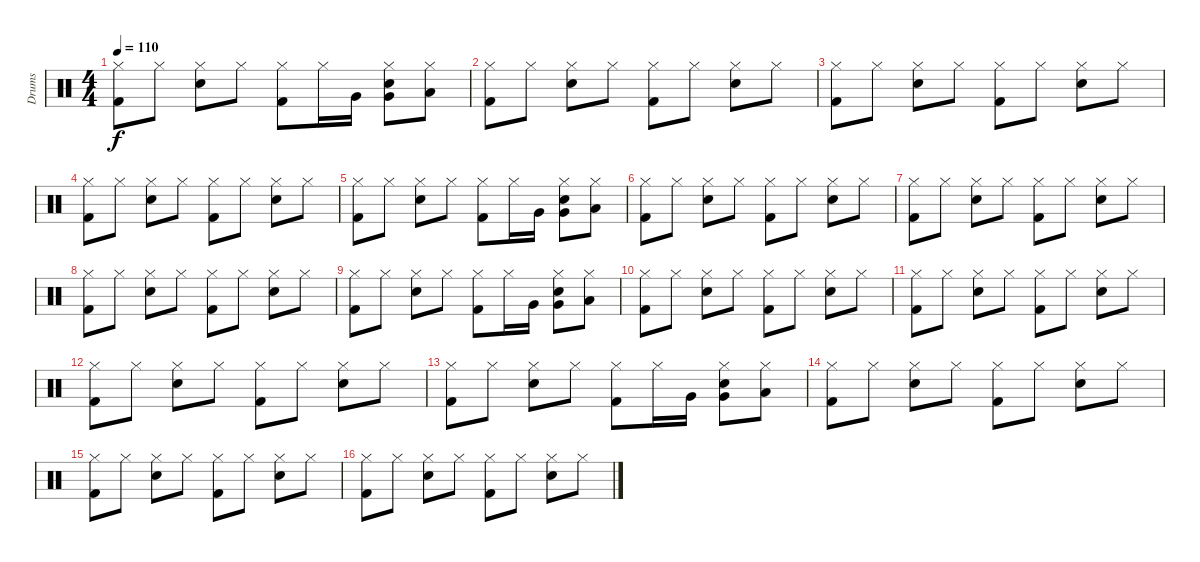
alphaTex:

\track ("Drums" "Drums") {instrument percussion}
\staff {score}
\articulation defaults
\ts (4 4)
\tempo 110
\clef neutral
\ks c
("Hi-Hat (closed)" "Kick (hit) 2").8{dy f} "Hi-Hat (closed)".8 ("Hi-Hat (closed)" "Electric Snare (hit)").8 "Hi-Hat (closed)".8 ("Hi-Hat (closed)" "Kick (hit) 2").8 "Hi-Hat (closed)".16 "Very Low Tom (hit)".16 ("Hi-Hat (closed)" "Electric Snare (hit)" "Very Low Tom (hit)").8 ("Hi-Hat (closed)" "Low Floor Tom (hit)").8 |
("Hi-Hat (closed)" "Kick (hit) 2").8 "Hi-Hat (closed)".8 ("Hi-Hat (closed)" "Electric Snare (hit)").8 "Hi-Hat (closed)".8 ("Hi-Hat (closed)" "Kick (hit) 2").8 "Hi-Hat (closed)".8 ("Hi-Hat (closed)" "Electric Snare (hit)").8 "Hi-Hat (closed)".8 |
("Hi-Hat (closed)" "Kick (hit) 2").8 "Hi-Hat (closed)".8 ("Hi-Hat (closed)" "Electric Snare (hit)").8 "Hi-Hat (closed)".8 ("Hi-Hat (closed)" "Kick (hit) 2").8 "Hi-Hat (closed)".8 ("Hi-Hat (closed)" "Electric Snare (hit)").8 "Hi-Hat (closed)".8 |
("Hi-Hat (closed)" "Kick (hit) 2").8 "Hi-Hat (closed)".8 ("Hi-Hat (closed)" "Electric Snare (hit)").8 "Hi-Hat (closed)".8 ("Hi-Hat (closed)" "Kick (hit) 2").8 "Hi-Hat (closed)".8 ("Hi-Hat (closed)" "Electric Snare (hit)").8 "Hi-Hat (closed)".8 |
("Hi-Hat (closed)" "Kick (hit) 2").8 "Hi-Hat (closed)".8 ("Hi-Hat (closed)" "Electric Snare (hit)").8 "Hi-Hat (closed)".8 ("Hi-Hat (closed)" "Kick (hit) 2").8 "Hi-Hat (closed)".16 "Very Low Tom (hit)".16 ("Hi-Hat (closed)" "Electric Snare (hit)" "Very Low Tom (hit)").8 ("Hi-Hat (closed)" "Low Floor Tom (hit)").8 |
("Hi-Hat (closed)" "Kick (hit) 2").8 "Hi-Hat (closed)".8 ("Hi-Hat (closed)" "Electric Snare (hit)").8 "Hi-Hat (closed)".8 ("Hi-Hat (closed)" "Kick (hit) 2").8 "Hi-Hat (closed)".8 ("Hi-Hat (closed)" "Electric Snare (hit)").8 "Hi-Hat (closed)".8 |
("Hi-Hat (closed)" "Kick (hit) 2").8 "Hi-Hat (closed)".8 ("Hi-Hat (closed)" "Electric Snare (hit)").8 "Hi-Hat (closed)".8 ("Hi-Hat (closed)" "Kick (hit) 2").8 "Hi-Hat (closed)".8 ("Hi-Hat (closed)" "Electric Snare (hit)").8 "Hi-Hat (closed)".8 |
("Hi-Hat (closed)" "Kick (hit) 2").8 "Hi-Hat (closed)".8 ("Hi-Hat (closed)" "Electric Snare (hit)").8 "Hi-Hat (closed)".8 ("Hi-Hat (closed)" "Kick (hit) 2").8 "Hi-Hat (closed)".8 ("Hi-Hat (closed)" "Electric Snare (hit)").8 "Hi-Hat (closed)".8 |
("Hi-Hat (closed)" "Kick (hit) 2").8 "Hi-Hat (closed)".8 ("Hi-Hat (closed)" "Electric Snare (hit)").8 "Hi-Hat (closed)".8 ("Hi-Hat (closed)" "Kick (hit) 2").8 "Hi-Hat (closed)".16 "Very Low Tom (hit)".16 ("Hi-Hat (closed)" "Electric Snare (hit)" "Very Low Tom (hit)").8 ("Hi-Hat (closed)" "Low Floor Tom (hit)").8 |
("Hi-Hat (closed)" "Kick (hit) 2").8 "Hi-Hat (closed)".8 ("Hi-Hat (closed)" "Electric Snare (hit)").8 "Hi-Hat (closed)".8 ("Hi-Hat (closed)" "Kick (hit) 2").8 "Hi-Hat (closed)".8 ("Hi-Hat (closed)" "Electric Snare (hit)").8 "Hi-Hat (closed)".8 |
("Hi-Hat (closed)" "Kick (hit) 2").8 "Hi-Hat (closed)".8 ("Hi-Hat (closed)" "Electric Snare (hit)").8 "Hi-Hat (closed)".8 ("Hi-Hat (closed)" "Kick (hit) 2").8 "Hi-Hat (closed)".8 ("Hi-Hat (closed)" "Electric Snare (hit)").8 "Hi-Hat (closed)".8 |
("Hi-Hat (closed)" "Kick (hit) 2").8 "Hi-Hat (closed)".8 ("Hi-Hat (closed)" "Electric Snare (hit)").8 "Hi-Hat (closed)".8 ("Hi-Hat (closed)" "Kick (hit) 2").8 "Hi-Hat (closed)".8 ("Hi-Hat (closed)" "Electric Snare (hit)").8 "Hi-Hat (closed)".8 |
("Hi-Hat (closed)" "Kick (hit) 2").8 "Hi-Hat (closed)".8 ("Hi-Hat (closed)" "Electric Snare (hit)").8 "Hi-Hat (closed)".8 ("Hi-Hat (closed)" "Kick (hit) 2").8 "Hi-Hat (closed)".16 "Very Low Tom (hit)".16 ("Hi-Hat (closed)" "Electric Snare (hit)" "Very Low Tom (hit)").8 ("Hi-Hat (closed)" "Low Floor Tom (hit)").8 |
("Hi-Hat (closed)" "Kick (hit) 2").8 "Hi-Hat (closed)".8 ("Hi-Hat (closed)" "Electric Snare (hit)").8 "Hi-Hat (closed)".8 ("Hi-Hat (closed)" "Kick (hit) 2").8 "Hi-Hat (closed)".8 ("Hi-Hat (closed)" "Electric Snare (hit)").8 "Hi-Hat (closed)".8 |
("Hi-Hat (closed)" "Kick (hit) 2").8 "Hi-Hat (closed)".8 ("Hi-Hat (closed)" "Electric Snare (hit)").8 "Hi-Hat (closed)".8 ("Hi-Hat (closed)" "Kick (hit) 2").8 "Hi-Hat (closed)".8 ("Hi-Hat (closed)" "Electric Snare (hit)").8 "Hi-Hat (closed)".8 |
("Hi-Hat (closed)" "Kick (hit) 2").8 "Hi-Hat (closed)".8 ("Hi-Hat (closed)" "Electric Snare (hit)").8 "Hi-Hat (closed)".8 ("Hi-Hat (closed)" "Kick (hit) 2").8 "Hi-Hat (closed)".8 ("Hi-Hat (closed)" "Electric Snare (hit)").8 "Hi-Hat (closed)".8
